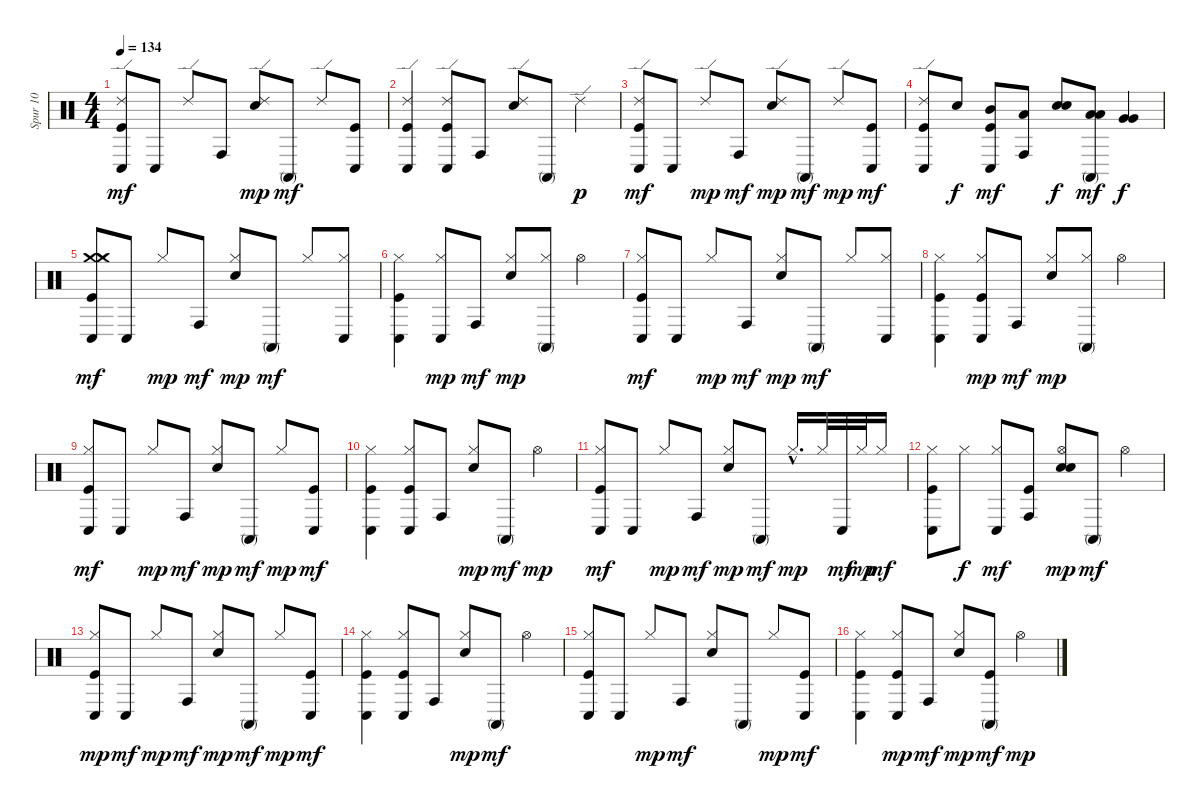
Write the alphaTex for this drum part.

\track ("Spur 10" "Spur 10") {instrument percussion}
\staff {score}
\articulation defaults
\ts (4 4)
\tempo 134
\clef neutral
\ks c
("Kick (hit)" "Conga low (hit)" "Ride (edge) 2").8{dy mf} "Conga low (hit)".8 "Ride (edge) 2".8 "Conga high (hit)".8 ("Electric Snare (hit)" "Ride (edge) 2").8{dy mp} "Conga high (mute)".8{dy mf} "Ride (edge) 2".8 ("Kick (hit)" "Conga low (hit)").8 |
("Kick (hit)" "Ride (edge) 2" "Conga low (hit)").4 ("Ride (edge) 2" "Conga low (hit)" "Kick (hit)").8 "Conga high (hit)".8 ("Electric Snare (hit)" "Ride (edge) 2").8 "Conga high (mute)".8 "Ride (edge) 2".4{dy p} |
("Kick (hit)" "Ride (edge) 2" "Conga low (hit)").8{dy mf} "Conga low (hit)".8 "Ride (edge) 2".8{dy mp} "Conga high (hit)".8{dy mf} ("Electric Snare (hit)" "Ride (edge) 2").8{dy mp} "Conga high (mute)".8{dy mf} "Ride (edge) 2".8{dy mp} ("Kick (hit)" "Conga low (hit)").8{dy mf} |
("Kick (hit)" "Ride (edge) 2" "Conga low (hit)").8 "Electric Snare (hit)".8{dy f} ("Mid Tom (hit)" "Conga low (hit)" "Kick (hit)").8{dy mf} ("Conga high (hit)" "Low Tom (hit)").8 ("Electric Snare (hit)" "Electric Snare (hit)").8{dy f} ("Conga high (mute)" "Low Tom (hit)" "Low Tom (hit)").8{dy mf} ("Very Low Tom (hit)" "Very Low Tom (hit)").4{dy f} |
("Crash medium (hit)" "Hi-Hat (closed)" "Crash medium (hit)" "Kick (hit)" "Conga low (hit)").8{dy mf} "Conga low (hit)".8 "Hi-Hat (closed)".8{dy mp} "Conga high (hit)".8{dy mf} ("Hi-Hat (closed)" "Electric Snare (hit)").8{dy mp} "Conga high (mute)".8{dy mf} "Hi-Hat (closed)".8 ("Hi-Hat (closed)" "Conga low (hit)").8 |
("Kick (hit)" "Conga low (hit)" "Hi-Hat (closed)").4 ("Conga low (hit)" "Hi-Hat (closed)").8{dy mp} "Conga high (hit)".8{dy mf} ("Electric Snare (hit)" "Hi-Hat (closed)").8{dy mp} ("Conga high (mute)" "Hi-Hat (closed)").8 "Hi-Hat (open)".4 |
("Kick (hit)" "Conga low (hit)" "Hi-Hat (closed)").8{dy mf} "Conga low (hit)".8 "Hi-Hat (closed)".8{dy mp} "Conga high (hit)".8{dy mf} ("Electric Snare (hit)" "Hi-Hat (closed)").8{dy mp} "Conga high (mute)".8{dy mf} "Hi-Hat (closed)".8 ("Conga low (hit)" "Hi-Hat (closed)").8 |
("Kick (hit)" "Conga low (hit)" "Hi-Hat (closed)").4 ("Kick (hit)" "Conga low (hit)" "Hi-Hat (closed)").8{dy mp} "Conga high (hit)".8{dy mf} ("Electric Snare (hit)" "Hi-Hat (closed)").8{dy mp} ("Conga high (mute)" "Hi-Hat (closed)").8 "Hi-Hat (open)".4 |
("Hi-Hat (closed)" "Conga low (hit)" "Kick (hit)").8{dy mf} "Conga low (hit)".8 "Hi-Hat (closed)".8{dy mp} "Conga high (hit)".8{dy mf} ("Hi-Hat (closed)" "Electric Snare (hit)").8{dy mp} "Conga high (mute)".8{dy mf} "Hi-Hat (closed)".8{dy mp} ("Conga low (hit)" "Kick (hit)").8{dy mf} |
("Hi-Hat (closed)" "Conga low (hit)" "Kick (hit)").4 ("Hi-Hat (closed)" "Conga low (hit)" "Kick (hit)").8 "Conga high (hit)".8 ("Hi-Hat (closed)" "Electric Snare (hit)").8{dy mp} "Conga high (mute)".8{dy mf} "Hi-Hat (open)".4{dy mp} |
("Kick (hit)" "Hi-Hat (closed)" "Conga low (hit)").8{dy mf} "Conga low (hit)".8 "Hi-Hat (closed)".8{dy mp} "Conga high (hit)".8{dy mf} ("Electric Snare (hit)" "Hi-Hat (closed)").8{dy mp} "Conga high (mute)".8{dy mf} "Hi-Hat (closed)"{hac}.16{d dy mp} "Hi-Hat (closed)".32 "Conga low (hit)".32{dy mf} "Hi-Hat (closed)".32{dy mp} "Hi-Hat (closed)".16{dy mf} |
("Kick (hit)" "Hi-Hat (closed)" "Conga low (hit)").8 "Hi-Hat (closed)".8{dy f} ("Hi-Hat (closed)" "Conga low (hit)").8{dy mf} ("Kick (hit)" "Conga high (hit)").8 ("Electric Snare (hit)" "Hi-Hat (open)" "Electric Snare (hit)").8{dy mp} "Conga high (mute)".8{dy mf} "Hi-Hat (open)".4 |
("Kick (hit)" "Conga low (hit)" "Hi-Hat (closed)").8{dy mp} "Conga low (hit)".8{dy mf} "Hi-Hat (closed)".8{dy mp} "Conga high (hit)".8{dy mf} ("Electric Snare (hit)" "Hi-Hat (closed)").8{dy mp} "Conga high (mute)".8{dy mf} "Hi-Hat (closed)".8{dy mp} ("Kick (hit)" "Conga low (hit)").8{dy mf} |
("Kick (hit)" "Conga low (hit)" "Hi-Hat (closed)").4 ("Kick (hit)" "Conga low (hit)" "Hi-Hat (closed)").8 "Conga high (hit)".8 ("Electric Snare (hit)" "Hi-Hat (closed)").8{dy mp} "Conga high (mute)".8{dy mf} "Hi-Hat (open)".4 |
("Kick (hit)" "Conga low (hit)" "Hi-Hat (closed)").8 "Conga low (hit)".8 "Hi-Hat (closed)".8{dy mp} "Conga high (hit)".8{dy mf} ("Electric Snare (hit)" "Hi-Hat (closed)").8 "Conga high (mute)".8 "Hi-Hat (closed)".8{dy mp} ("Conga low (hit)" "Kick (hit)").8{dy mf} |
("Kick (hit)" "Conga low (hit)" "Hi-Hat (closed)").4 ("Kick (hit)" "Conga low (hit)" "Hi-Hat (closed)").8{dy mp} "Conga high (hit)".8{dy mf} ("Electric Snare (hit)" "Hi-Hat (closed)").8{dy mp} ("Kick (hit)" "Conga high (mute)").8{dy mf} "Hi-Hat (open)".4{dy mp}
